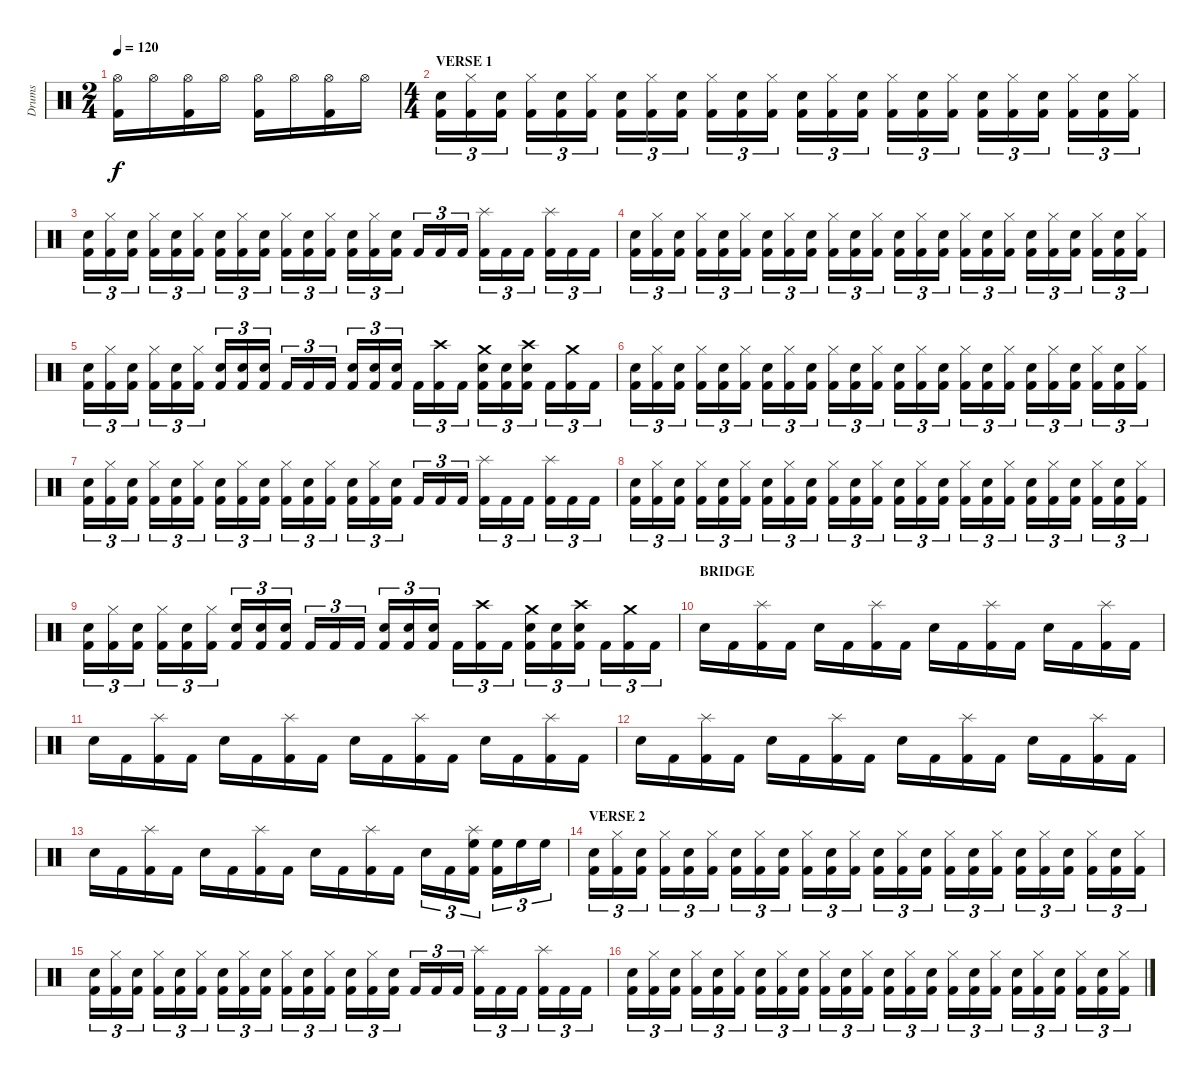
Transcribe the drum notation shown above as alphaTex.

\track ("Drums" "Drums") {instrument percussion}
\staff {score}
\articulation defaults
\ts (2 4)
\tempo 120
\clef neutral
\ks c
("Hi-Hat (open)" "Kick (hit) 2").16{dy f} "Hi-Hat (open)".16 ("Hi-Hat (open)" "Kick (hit) 2").16 "Hi-Hat (open)".16 ("Hi-Hat (open)" "Kick (hit) 2").16 "Hi-Hat (open)".16 ("Hi-Hat (open)" "Kick (hit) 2").16 "Hi-Hat (open)".16 |
\ts (4 4)
\section ("" "VERSE 1")
("Electric Snare (hit)" "Kick (hit) 2").16{tu (3 2)} ("Hi-Hat (closed)" "Kick (hit) 2").16{tu (3 2)} ("Electric Snare (hit)" "Kick (hit) 2").16{tu (3 2)} ("Hi-Hat (closed)" "Kick (hit) 2").16{tu (3 2)} ("Electric Snare (hit)" "Kick (hit) 2").16{tu (3 2)} ("Hi-Hat (closed)" "Kick (hit) 2").16{tu (3 2)} ("Electric Snare (hit)" "Kick (hit) 2").16{tu (3 2)} ("Hi-Hat (closed)" "Kick (hit) 2").16{tu (3 2)} ("Electric Snare (hit)" "Kick (hit) 2").16{tu (3 2)} ("Hi-Hat (closed)" "Kick (hit) 2").16{tu (3 2)} ("Electric Snare (hit)" "Kick (hit) 2").16{tu (3 2)} ("Hi-Hat (closed)" "Kick (hit) 2").16{tu (3 2)} ("Electric Snare (hit)" "Kick (hit) 2").16{tu (3 2)} ("Hi-Hat (closed)" "Kick (hit) 2").16{tu (3 2)} ("Electric Snare (hit)" "Kick (hit) 2").16{tu (3 2)} ("Hi-Hat (closed)" "Kick (hit) 2").16{tu (3 2)} ("Electric Snare (hit)" "Kick (hit) 2").16{tu (3 2)} ("Hi-Hat (closed)" "Kick (hit) 2").16{tu (3 2)} ("Electric Snare (hit)" "Kick (hit) 2").16{tu (3 2)} ("Hi-Hat (closed)" "Kick (hit) 2").16{tu (3 2)} ("Electric Snare (hit)" "Kick (hit) 2").16{tu (3 2)} ("Hi-Hat (closed)" "Kick (hit) 2").16{tu (3 2)} ("Electric Snare (hit)" "Kick (hit) 2").16{tu (3 2)} ("Hi-Hat (closed)" "Kick (hit) 2").16{tu (3 2)} |
("Electric Snare (hit)" "Kick (hit) 2").16{tu (3 2)} ("Hi-Hat (closed)" "Kick (hit) 2").16{tu (3 2)} ("Electric Snare (hit)" "Kick (hit) 2").16{tu (3 2)} ("Hi-Hat (closed)" "Kick (hit) 2").16{tu (3 2)} ("Electric Snare (hit)" "Kick (hit) 2").16{tu (3 2)} ("Hi-Hat (closed)" "Kick (hit) 2").16{tu (3 2)} ("Electric Snare (hit)" "Kick (hit) 2").16{tu (3 2)} ("Hi-Hat (closed)" "Kick (hit) 2").16{tu (3 2)} ("Electric Snare (hit)" "Kick (hit) 2").16{tu (3 2)} ("Hi-Hat (closed)" "Kick (hit) 2").16{tu (3 2)} ("Electric Snare (hit)" "Kick (hit) 2").16{tu (3 2)} ("Hi-Hat (closed)" "Kick (hit) 2").16{tu (3 2)} ("Electric Snare (hit)" "Kick (hit) 2").16{tu (3 2)} ("Hi-Hat (closed)" "Kick (hit) 2").16{tu (3 2)} ("Electric Snare (hit)" "Kick (hit) 2").16{tu (3 2)} "Kick (hit) 2".16{tu (3 2)} "Kick (hit) 2".16{tu (3 2)} "Kick (hit) 2".16{tu (3 2)} ("Splash (hit)" "Kick (hit) 2").16{tu (3 2)} "Kick (hit) 2".16{tu (3 2)} "Kick (hit) 2".16{tu (3 2)} ("Splash (hit)" "Kick (hit) 2").16{tu (3 2)} "Kick (hit) 2".16{tu (3 2)} "Kick (hit) 2".16{tu (3 2)} |
("Electric Snare (hit)" "Kick (hit) 2").16{tu (3 2)} ("Hi-Hat (closed)" "Kick (hit) 2").16{tu (3 2)} ("Electric Snare (hit)" "Kick (hit) 2").16{tu (3 2)} ("Hi-Hat (closed)" "Kick (hit) 2").16{tu (3 2)} ("Electric Snare (hit)" "Kick (hit) 2").16{tu (3 2)} ("Hi-Hat (closed)" "Kick (hit) 2").16{tu (3 2)} ("Electric Snare (hit)" "Kick (hit) 2").16{tu (3 2)} ("Hi-Hat (closed)" "Kick (hit) 2").16{tu (3 2)} ("Electric Snare (hit)" "Kick (hit) 2").16{tu (3 2)} ("Hi-Hat (closed)" "Kick (hit) 2").16{tu (3 2)} ("Electric Snare (hit)" "Kick (hit) 2").16{tu (3 2)} ("Hi-Hat (closed)" "Kick (hit) 2").16{tu (3 2)} ("Electric Snare (hit)" "Kick (hit) 2").16{tu (3 2)} ("Hi-Hat (closed)" "Kick (hit) 2").16{tu (3 2)} ("Electric Snare (hit)" "Kick (hit) 2").16{tu (3 2)} ("Hi-Hat (closed)" "Kick (hit) 2").16{tu (3 2)} ("Electric Snare (hit)" "Kick (hit) 2").16{tu (3 2)} ("Hi-Hat (closed)" "Kick (hit) 2").16{tu (3 2)} ("Electric Snare (hit)" "Kick (hit) 2").16{tu (3 2)} ("Hi-Hat (closed)" "Kick (hit) 2").16{tu (3 2)} ("Electric Snare (hit)" "Kick (hit) 2").16{tu (3 2)} ("Hi-Hat (closed)" "Kick (hit) 2").16{tu (3 2)} ("Electric Snare (hit)" "Kick (hit) 2").16{tu (3 2)} ("Hi-Hat (closed)" "Kick (hit) 2").16{tu (3 2)} |
("Electric Snare (hit)" "Kick (hit) 2").16{tu (3 2)} ("Hi-Hat (closed)" "Kick (hit) 2").16{tu (3 2)} ("Electric Snare (hit)" "Kick (hit) 2").16{tu (3 2)} ("Hi-Hat (closed)" "Kick (hit) 2").16{tu (3 2)} ("Electric Snare (hit)" "Kick (hit) 2").16{tu (3 2)} ("Hi-Hat (closed)" "Kick (hit) 2").16{tu (3 2)} ("Electric Snare (hit)" "Kick (hit) 2").16{tu (3 2)} ("Electric Snare (hit)" "Kick (hit) 2").16{tu (3 2)} ("Electric Snare (hit)" "Kick (hit) 2").16{tu (3 2)} "Kick (hit) 2".16{tu (3 2)} "Kick (hit) 2".16{tu (3 2)} "Kick (hit) 2".16{tu (3 2)} ("Electric Snare (hit)" "Kick (hit) 2").16{tu (3 2)} ("Electric Snare (hit)" "Kick (hit) 2").16{tu (3 2)} ("Electric Snare (hit)" "Kick (hit) 2").16{tu (3 2)} "Kick (hit) 2".16{tu (3 2)} ("Crash high (hit)" "Kick (hit) 2").16{tu (3 2)} "Kick (hit) 2".16{tu (3 2)} ("Crash medium (hit)" "Electric Snare (hit)" "Kick (hit) 2").16{tu (3 2)} ("Electric Snare (hit)" "Kick (hit) 2").16{tu (3 2)} ("Crash high (hit)" "Electric Snare (hit)" "Kick (hit) 2").16{tu (3 2)} "Kick (hit) 2".16{tu (3 2)} ("Crash medium (hit)" "Kick (hit) 2").16{tu (3 2)} "Kick (hit) 2".16{tu (3 2)} |
("Electric Snare (hit)" "Kick (hit) 2").16{tu (3 2)} ("Hi-Hat (closed)" "Kick (hit) 2").16{tu (3 2)} ("Electric Snare (hit)" "Kick (hit) 2").16{tu (3 2)} ("Hi-Hat (closed)" "Kick (hit) 2").16{tu (3 2)} ("Electric Snare (hit)" "Kick (hit) 2").16{tu (3 2)} ("Hi-Hat (closed)" "Kick (hit) 2").16{tu (3 2)} ("Electric Snare (hit)" "Kick (hit) 2").16{tu (3 2)} ("Hi-Hat (closed)" "Kick (hit) 2").16{tu (3 2)} ("Electric Snare (hit)" "Kick (hit) 2").16{tu (3 2)} ("Hi-Hat (closed)" "Kick (hit) 2").16{tu (3 2)} ("Electric Snare (hit)" "Kick (hit) 2").16{tu (3 2)} ("Hi-Hat (closed)" "Kick (hit) 2").16{tu (3 2)} ("Electric Snare (hit)" "Kick (hit) 2").16{tu (3 2)} ("Hi-Hat (closed)" "Kick (hit) 2").16{tu (3 2)} ("Electric Snare (hit)" "Kick (hit) 2").16{tu (3 2)} ("Hi-Hat (closed)" "Kick (hit) 2").16{tu (3 2)} ("Electric Snare (hit)" "Kick (hit) 2").16{tu (3 2)} ("Hi-Hat (closed)" "Kick (hit) 2").16{tu (3 2)} ("Electric Snare (hit)" "Kick (hit) 2").16{tu (3 2)} ("Hi-Hat (closed)" "Kick (hit) 2").16{tu (3 2)} ("Electric Snare (hit)" "Kick (hit) 2").16{tu (3 2)} ("Hi-Hat (closed)" "Kick (hit) 2").16{tu (3 2)} ("Electric Snare (hit)" "Kick (hit) 2").16{tu (3 2)} ("Hi-Hat (closed)" "Kick (hit) 2").16{tu (3 2)} |
("Electric Snare (hit)" "Kick (hit) 2").16{tu (3 2)} ("Hi-Hat (closed)" "Kick (hit) 2").16{tu (3 2)} ("Electric Snare (hit)" "Kick (hit) 2").16{tu (3 2)} ("Hi-Hat (closed)" "Kick (hit) 2").16{tu (3 2)} ("Electric Snare (hit)" "Kick (hit) 2").16{tu (3 2)} ("Hi-Hat (closed)" "Kick (hit) 2").16{tu (3 2)} ("Electric Snare (hit)" "Kick (hit) 2").16{tu (3 2)} ("Hi-Hat (closed)" "Kick (hit) 2").16{tu (3 2)} ("Electric Snare (hit)" "Kick (hit) 2").16{tu (3 2)} ("Hi-Hat (closed)" "Kick (hit) 2").16{tu (3 2)} ("Electric Snare (hit)" "Kick (hit) 2").16{tu (3 2)} ("Hi-Hat (closed)" "Kick (hit) 2").16{tu (3 2)} ("Electric Snare (hit)" "Kick (hit) 2").16{tu (3 2)} ("Hi-Hat (closed)" "Kick (hit) 2").16{tu (3 2)} ("Electric Snare (hit)" "Kick (hit) 2").16{tu (3 2)} "Kick (hit) 2".16{tu (3 2)} "Kick (hit) 2".16{tu (3 2)} "Kick (hit) 2".16{tu (3 2)} ("Splash (hit)" "Kick (hit) 2").16{tu (3 2)} "Kick (hit) 2".16{tu (3 2)} "Kick (hit) 2".16{tu (3 2)} ("Splash (hit)" "Kick (hit) 2").16{tu (3 2)} "Kick (hit) 2".16{tu (3 2)} "Kick (hit) 2".16{tu (3 2)} |
("Electric Snare (hit)" "Kick (hit) 2").16{tu (3 2)} ("Hi-Hat (closed)" "Kick (hit) 2").16{tu (3 2)} ("Electric Snare (hit)" "Kick (hit) 2").16{tu (3 2)} ("Hi-Hat (closed)" "Kick (hit) 2").16{tu (3 2)} ("Electric Snare (hit)" "Kick (hit) 2").16{tu (3 2)} ("Hi-Hat (closed)" "Kick (hit) 2").16{tu (3 2)} ("Electric Snare (hit)" "Kick (hit) 2").16{tu (3 2)} ("Hi-Hat (closed)" "Kick (hit) 2").16{tu (3 2)} ("Electric Snare (hit)" "Kick (hit) 2").16{tu (3 2)} ("Hi-Hat (closed)" "Kick (hit) 2").16{tu (3 2)} ("Electric Snare (hit)" "Kick (hit) 2").16{tu (3 2)} ("Hi-Hat (closed)" "Kick (hit) 2").16{tu (3 2)} ("Electric Snare (hit)" "Kick (hit) 2").16{tu (3 2)} ("Hi-Hat (closed)" "Kick (hit) 2").16{tu (3 2)} ("Electric Snare (hit)" "Kick (hit) 2").16{tu (3 2)} ("Hi-Hat (closed)" "Kick (hit) 2").16{tu (3 2)} ("Electric Snare (hit)" "Kick (hit) 2").16{tu (3 2)} ("Hi-Hat (closed)" "Kick (hit) 2").16{tu (3 2)} ("Electric Snare (hit)" "Kick (hit) 2").16{tu (3 2)} ("Hi-Hat (closed)" "Kick (hit) 2").16{tu (3 2)} ("Electric Snare (hit)" "Kick (hit) 2").16{tu (3 2)} ("Hi-Hat (closed)" "Kick (hit) 2").16{tu (3 2)} ("Electric Snare (hit)" "Kick (hit) 2").16{tu (3 2)} ("Hi-Hat (closed)" "Kick (hit) 2").16{tu (3 2)} |
("Electric Snare (hit)" "Kick (hit) 2").16{tu (3 2)} ("Hi-Hat (closed)" "Kick (hit) 2").16{tu (3 2)} ("Electric Snare (hit)" "Kick (hit) 2").16{tu (3 2)} ("Hi-Hat (closed)" "Kick (hit) 2").16{tu (3 2)} ("Electric Snare (hit)" "Kick (hit) 2").16{tu (3 2)} ("Hi-Hat (closed)" "Kick (hit) 2").16{tu (3 2)} ("Electric Snare (hit)" "Kick (hit) 2").16{tu (3 2)} ("Electric Snare (hit)" "Kick (hit) 2").16{tu (3 2)} ("Electric Snare (hit)" "Kick (hit) 2").16{tu (3 2)} "Kick (hit) 2".16{tu (3 2)} "Kick (hit) 2".16{tu (3 2)} "Kick (hit) 2".16{tu (3 2)} ("Electric Snare (hit)" "Kick (hit) 2").16{tu (3 2)} ("Electric Snare (hit)" "Kick (hit) 2").16{tu (3 2)} ("Electric Snare (hit)" "Kick (hit) 2").16{tu (3 2)} "Kick (hit) 2".16{tu (3 2)} ("Crash high (hit)" "Kick (hit) 2").16{tu (3 2)} "Kick (hit) 2".16{tu (3 2)} ("Crash medium (hit)" "Electric Snare (hit)" "Kick (hit) 2").16{tu (3 2)} ("Electric Snare (hit)" "Kick (hit) 2").16{tu (3 2)} ("Crash high (hit)" "Electric Snare (hit)" "Kick (hit) 2").16{tu (3 2)} "Kick (hit) 2".16{tu (3 2)} ("Crash medium (hit)" "Kick (hit) 2").16{tu (3 2)} "Kick (hit) 2".16{tu (3 2)} |
\section ("" "BRIDGE")
"Electric Snare (hit)".16 "Kick (hit) 2".16 ("Splash (hit)" "Kick (hit) 2").16 "Kick (hit) 2".16 "Electric Snare (hit)".16 "Kick (hit) 2".16 ("Splash (hit)" "Kick (hit) 2").16 "Kick (hit) 2".16 "Electric Snare (hit)".16 "Kick (hit) 2".16 ("Splash (hit)" "Kick (hit) 2").16 "Kick (hit) 2".16 "Electric Snare (hit)".16 "Kick (hit) 2".16 ("Splash (hit)" "Kick (hit) 2").16 "Kick (hit) 2".16 |
"Electric Snare (hit)".16 "Kick (hit) 2".16 ("Splash (hit)" "Kick (hit) 2").16 "Kick (hit) 2".16 "Electric Snare (hit)".16 "Kick (hit) 2".16 ("Splash (hit)" "Kick (hit) 2").16 "Kick (hit) 2".16 "Electric Snare (hit)".16 "Kick (hit) 2".16 ("Splash (hit)" "Kick (hit) 2").16 "Kick (hit) 2".16 "Electric Snare (hit)".16 "Kick (hit) 2".16 ("Splash (hit)" "Kick (hit) 2").16 "Kick (hit) 2".16 |
"Electric Snare (hit)".16 "Kick (hit) 2".16 ("Splash (hit)" "Kick (hit) 2").16 "Kick (hit) 2".16 "Electric Snare (hit)".16 "Kick (hit) 2".16 ("Splash (hit)" "Kick (hit) 2").16 "Kick (hit) 2".16 "Electric Snare (hit)".16 "Kick (hit) 2".16 ("Splash (hit)" "Kick (hit) 2").16 "Kick (hit) 2".16 "Electric Snare (hit)".16 "Kick (hit) 2".16 ("Splash (hit)" "Kick (hit) 2").16 "Kick (hit) 2".16 |
"Electric Snare (hit)".16 "Kick (hit) 2".16 ("Splash (hit)" "Kick (hit) 2").16 "Kick (hit) 2".16 "Electric Snare (hit)".16 "Kick (hit) 2".16 ("Splash (hit)" "Kick (hit) 2").16 "Kick (hit) 2".16 "Electric Snare (hit)".16 "Kick (hit) 2".16 ("Splash (hit)" "Kick (hit) 2").16 "Kick (hit) 2".16 "Electric Snare (hit)".16{tu (3 2)} "Kick (hit) 2".16{tu (3 2)} ("Splash (hit)" "High Floor Tom (hit)" "Kick (hit) 2").16{tu (3 2)} ("High Floor Tom (hit)" "Kick (hit) 2").16{tu (3 2)} "High Floor Tom (hit)".16{tu (3 2)} "High Floor Tom (hit)".16{tu (3 2)} |
\section ("" "VERSE 2")
("Electric Snare (hit)" "Kick (hit) 2").16{tu (3 2)} ("Hi-Hat (closed)" "Kick (hit) 2").16{tu (3 2)} ("Electric Snare (hit)" "Kick (hit) 2").16{tu (3 2)} ("Hi-Hat (closed)" "Kick (hit) 2").16{tu (3 2)} ("Electric Snare (hit)" "Kick (hit) 2").16{tu (3 2)} ("Hi-Hat (closed)" "Kick (hit) 2").16{tu (3 2)} ("Electric Snare (hit)" "Kick (hit) 2").16{tu (3 2)} ("Hi-Hat (closed)" "Kick (hit) 2").16{tu (3 2)} ("Electric Snare (hit)" "Kick (hit) 2").16{tu (3 2)} ("Hi-Hat (closed)" "Kick (hit) 2").16{tu (3 2)} ("Electric Snare (hit)" "Kick (hit) 2").16{tu (3 2)} ("Hi-Hat (closed)" "Kick (hit) 2").16{tu (3 2)} ("Electric Snare (hit)" "Kick (hit) 2").16{tu (3 2)} ("Hi-Hat (closed)" "Kick (hit) 2").16{tu (3 2)} ("Electric Snare (hit)" "Kick (hit) 2").16{tu (3 2)} ("Hi-Hat (closed)" "Kick (hit) 2").16{tu (3 2)} ("Electric Snare (hit)" "Kick (hit) 2").16{tu (3 2)} ("Hi-Hat (closed)" "Kick (hit) 2").16{tu (3 2)} ("Electric Snare (hit)" "Kick (hit) 2").16{tu (3 2)} ("Hi-Hat (closed)" "Kick (hit) 2").16{tu (3 2)} ("Electric Snare (hit)" "Kick (hit) 2").16{tu (3 2)} ("Hi-Hat (closed)" "Kick (hit) 2").16{tu (3 2)} ("Electric Snare (hit)" "Kick (hit) 2").16{tu (3 2)} ("Hi-Hat (closed)" "Kick (hit) 2").16{tu (3 2)} |
("Electric Snare (hit)" "Kick (hit) 2").16{tu (3 2)} ("Hi-Hat (closed)" "Kick (hit) 2").16{tu (3 2)} ("Electric Snare (hit)" "Kick (hit) 2").16{tu (3 2)} ("Hi-Hat (closed)" "Kick (hit) 2").16{tu (3 2)} ("Electric Snare (hit)" "Kick (hit) 2").16{tu (3 2)} ("Hi-Hat (closed)" "Kick (hit) 2").16{tu (3 2)} ("Electric Snare (hit)" "Kick (hit) 2").16{tu (3 2)} ("Hi-Hat (closed)" "Kick (hit) 2").16{tu (3 2)} ("Electric Snare (hit)" "Kick (hit) 2").16{tu (3 2)} ("Hi-Hat (closed)" "Kick (hit) 2").16{tu (3 2)} ("Electric Snare (hit)" "Kick (hit) 2").16{tu (3 2)} ("Hi-Hat (closed)" "Kick (hit) 2").16{tu (3 2)} ("Electric Snare (hit)" "Kick (hit) 2").16{tu (3 2)} ("Hi-Hat (closed)" "Kick (hit) 2").16{tu (3 2)} ("Electric Snare (hit)" "Kick (hit) 2").16{tu (3 2)} "Kick (hit) 2".16{tu (3 2)} "Kick (hit) 2".16{tu (3 2)} "Kick (hit) 2".16{tu (3 2)} ("Splash (hit)" "Kick (hit) 2").16{tu (3 2)} "Kick (hit) 2".16{tu (3 2)} "Kick (hit) 2".16{tu (3 2)} ("Splash (hit)" "Kick (hit) 2").16{tu (3 2)} "Kick (hit) 2".16{tu (3 2)} "Kick (hit) 2".16{tu (3 2)} |
("Electric Snare (hit)" "Kick (hit) 2").16{tu (3 2)} ("Hi-Hat (closed)" "Kick (hit) 2").16{tu (3 2)} ("Electric Snare (hit)" "Kick (hit) 2").16{tu (3 2)} ("Hi-Hat (closed)" "Kick (hit) 2").16{tu (3 2)} ("Electric Snare (hit)" "Kick (hit) 2").16{tu (3 2)} ("Hi-Hat (closed)" "Kick (hit) 2").16{tu (3 2)} ("Electric Snare (hit)" "Kick (hit) 2").16{tu (3 2)} ("Hi-Hat (closed)" "Kick (hit) 2").16{tu (3 2)} ("Electric Snare (hit)" "Kick (hit) 2").16{tu (3 2)} ("Hi-Hat (closed)" "Kick (hit) 2").16{tu (3 2)} ("Electric Snare (hit)" "Kick (hit) 2").16{tu (3 2)} ("Hi-Hat (closed)" "Kick (hit) 2").16{tu (3 2)} ("Electric Snare (hit)" "Kick (hit) 2").16{tu (3 2)} ("Hi-Hat (closed)" "Kick (hit) 2").16{tu (3 2)} ("Electric Snare (hit)" "Kick (hit) 2").16{tu (3 2)} ("Hi-Hat (closed)" "Kick (hit) 2").16{tu (3 2)} ("Electric Snare (hit)" "Kick (hit) 2").16{tu (3 2)} ("Hi-Hat (closed)" "Kick (hit) 2").16{tu (3 2)} ("Electric Snare (hit)" "Kick (hit) 2").16{tu (3 2)} ("Hi-Hat (closed)" "Kick (hit) 2").16{tu (3 2)} ("Electric Snare (hit)" "Kick (hit) 2").16{tu (3 2)} ("Hi-Hat (closed)" "Kick (hit) 2").16{tu (3 2)} ("Electric Snare (hit)" "Kick (hit) 2").16{tu (3 2)} ("Hi-Hat (closed)" "Kick (hit) 2").16{tu (3 2)}
